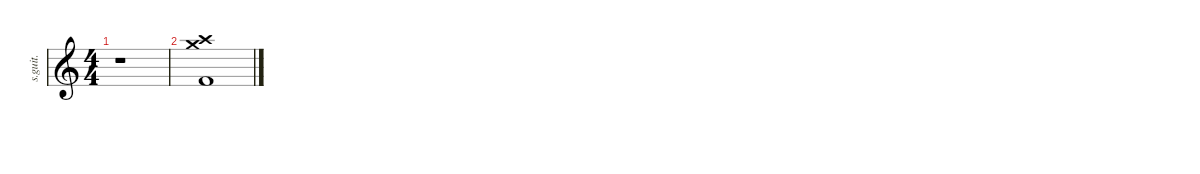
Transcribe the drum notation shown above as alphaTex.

\defaultSystemsLayout 4
\hideDynamics
\bracketExtendMode nobrackets
\track ("Chris Slade" "s.guit.") {instrument percussion}
\staff {score}
\articulation defaults
\ts (4 4)
\tempo (100 hide)
\clef g2
\ks c
r.1{dy ff} |
\tempo (96 hide)
("Crash medium (hit)" "Kick (hit) 2" "Crash high (hit)").1{lyrics (0 "") lyrics (1 "") lyrics (2 "") lyrics (3 "") lyrics (4 "")}
